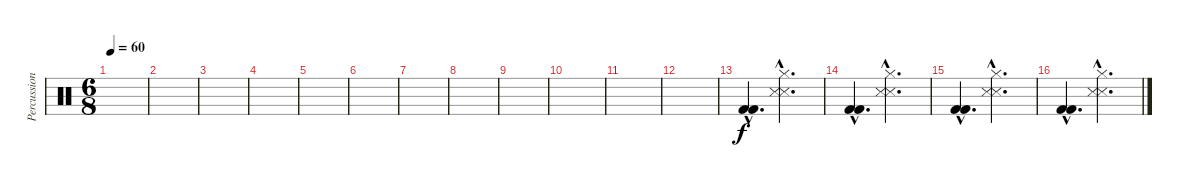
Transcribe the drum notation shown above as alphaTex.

\track ("Percussion" "Percussion") {instrument percussion}
\staff {score}
\articulation defaults
\ts (6 8)
\tempo 60
\clef neutral
\ks c
|
|
|
|
|
|
|
|
|
|
|
|
("Kick (hit) 2"{hac} "Kick (hit) 2"{hac}).4{d} ("Hi-Hat (closed)"{hac} "Snare (side stick) 3"{hac} "Snare (side stick) 3"{hac}).4{d} |
("Kick (hit) 2"{hac} "Kick (hit) 2"{hac}).4{d} ("Hi-Hat (closed)"{hac} "Snare (side stick) 3"{hac} "Snare (side stick) 3"{hac}).4{d} |
("Kick (hit) 2"{hac} "Kick (hit) 2"{hac}).4{d} ("Hi-Hat (closed)"{hac} "Snare (side stick) 3"{hac} "Snare (side stick) 3"{hac}).4{d} |
("Kick (hit) 2"{hac} "Kick (hit) 2"{hac}).4{d} ("Hi-Hat (closed)"{hac} "Snare (side stick) 3"{hac} "Snare (side stick) 3"{hac}).4{d}
